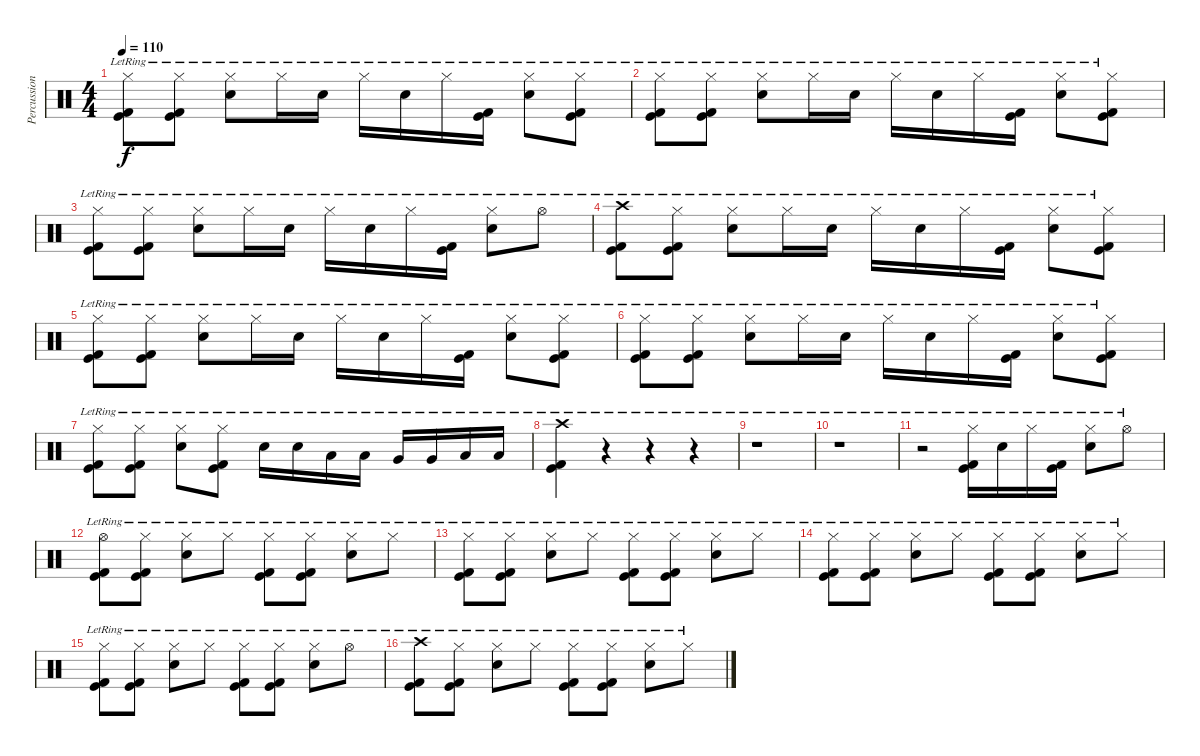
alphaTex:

\track ("Percussion" "Percussion") {instrument percussion}
\staff {score}
\articulation defaults
\ts (4 4)
\tempo 110
\clef neutral
\ks c
("Hi-Hat (closed)"{lr} "Kick (hit) 2"{lr} "Kick (hit)"{lr}).8{dy f} ("Hi-Hat (closed)"{lr} "Kick (hit) 2"{lr} "Kick (hit)"{lr}).8 ("Hi-Hat (closed)"{lr} "Snare (hit) 2"{lr}).8 "Hi-Hat (closed)"{lr}.16 "Snare (hit) 2"{lr}.16 "Hi-Hat (closed)"{lr}.16 "Snare (hit) 2"{lr}.16 "Hi-Hat (closed)"{lr}.16 ("Kick (hit) 2"{lr} "Kick (hit)"{lr}).16 ("Hi-Hat (closed)"{lr} "Snare (hit) 2"{lr}).8 ("Hi-Hat (closed)"{lr} "Kick (hit) 2"{lr} "Kick (hit)"{lr}).8 |
("Hi-Hat (closed)"{lr} "Kick (hit) 2"{lr} "Kick (hit)"{lr}).8 ("Hi-Hat (closed)"{lr} "Kick (hit) 2"{lr} "Kick (hit)"{lr}).8 ("Hi-Hat (closed)"{lr} "Snare (hit) 2"{lr}).8 "Hi-Hat (closed)"{lr}.16 "Snare (hit) 2"{lr}.16 "Hi-Hat (closed)"{lr}.16 "Snare (hit) 2"{lr}.16 "Hi-Hat (closed)"{lr}.16 ("Kick (hit) 2"{lr} "Kick (hit)"{lr}).16 ("Hi-Hat (closed)"{lr} "Snare (hit) 2"{lr}).8 ("Hi-Hat (closed)"{lr} "Kick (hit) 2"{lr} "Kick (hit)"{lr}).8 |
("Hi-Hat (closed)"{lr} "Kick (hit) 2"{lr} "Kick (hit)"{lr}).8 ("Hi-Hat (closed)"{lr} "Kick (hit) 2"{lr} "Kick (hit)"{lr}).8 ("Hi-Hat (closed)"{lr} "Snare (hit) 2"{lr}).8 "Hi-Hat (closed)"{lr}.16 "Snare (hit) 2"{lr}.16 "Hi-Hat (closed)"{lr}.16 "Snare (hit) 2"{lr}.16 "Hi-Hat (closed)"{lr}.16 ("Kick (hit) 2"{lr} "Kick (hit)"{lr}).16 ("Hi-Hat (closed)"{lr} "Snare (hit) 2"{lr}).8 "Hi-Hat (open)"{lr}.8 |
("Crash high (hit)"{lr} "Kick (hit) 2"{lr} "Kick (hit)"{lr}).8 ("Hi-Hat (closed)"{lr} "Kick (hit) 2"{lr} "Kick (hit)"{lr}).8 ("Hi-Hat (closed)"{lr} "Snare (hit) 2"{lr}).8 "Hi-Hat (closed)"{lr}.16 "Snare (hit) 2"{lr}.16 "Hi-Hat (closed)"{lr}.16 "Snare (hit) 2"{lr}.16 "Hi-Hat (closed)"{lr}.16 ("Kick (hit) 2"{lr} "Kick (hit)"{lr}).16 ("Hi-Hat (closed)"{lr} "Snare (hit) 2"{lr}).8 ("Hi-Hat (closed)"{lr} "Kick (hit) 2"{lr} "Kick (hit)"{lr}).8 |
("Hi-Hat (closed)"{lr} "Kick (hit) 2"{lr} "Kick (hit)"{lr}).8 ("Hi-Hat (closed)"{lr} "Kick (hit) 2"{lr} "Kick (hit)"{lr}).8 ("Hi-Hat (closed)"{lr} "Snare (hit) 2"{lr}).8 "Hi-Hat (closed)"{lr}.16 "Snare (hit) 2"{lr}.16 "Hi-Hat (closed)"{lr}.16 "Snare (hit) 2"{lr}.16 "Hi-Hat (closed)"{lr}.16 ("Kick (hit) 2"{lr} "Kick (hit)"{lr}).16 ("Hi-Hat (closed)"{lr} "Snare (hit) 2"{lr}).8 ("Hi-Hat (closed)"{lr} "Kick (hit) 2"{lr} "Kick (hit)"{lr}).8 |
("Hi-Hat (closed)"{lr} "Kick (hit) 2"{lr} "Kick (hit)"{lr}).8 ("Hi-Hat (closed)"{lr} "Kick (hit) 2"{lr} "Kick (hit)"{lr}).8 ("Hi-Hat (closed)"{lr} "Snare (hit) 2"{lr}).8 "Hi-Hat (closed)"{lr}.16 "Snare (hit) 2"{lr}.16 "Hi-Hat (closed)"{lr}.16 "Snare (hit) 2"{lr}.16 "Hi-Hat (closed)"{lr}.16 ("Kick (hit) 2"{lr} "Kick (hit)"{lr}).16 ("Hi-Hat (closed)"{lr} "Snare (hit) 2"{lr}).8 ("Hi-Hat (closed)"{lr} "Kick (hit) 2"{lr} "Kick (hit)"{lr}).8 |
("Hi-Hat (closed)"{lr} "Kick (hit) 2"{lr} "Kick (hit)"{lr}).8 ("Hi-Hat (closed)"{lr} "Kick (hit) 2"{lr} "Kick (hit)"{lr}).8 ("Hi-Hat (closed)"{lr} "Snare (hit) 2"{lr}).8 ("Hi-Hat (closed)"{lr} "Kick (hit) 2"{lr} "Kick (hit)"{lr}).8 "Snare (hit) 2"{lr}.16 "Snare (hit) 2"{lr}.16 "Low Tom (hit)"{lr}.16 "Low Tom (hit)"{lr}.16 "Very Low Tom (hit)"{lr}.16 "Very Low Tom (hit)"{lr}.16 "Low Floor Tom (hit)"{lr}.16 "Low Floor Tom (hit)"{lr}.16 |
("Crash high (hit)"{lr} "Kick (hit) 2"{lr} "Kick (hit)"{lr}).4 r.4 r.4 r.4 |
r.1 |
r.1 |
r.2 ("Hi-Hat (closed)"{lr} "Kick (hit) 2"{lr} "Kick (hit)"{lr}).16 "Electric Snare (hit)"{lr}.16 "Hi-Hat (closed)"{lr}.16 ("Kick (hit) 2"{lr} "Kick (hit)"{lr}).16 ("Hi-Hat (closed)"{lr} "Electric Snare (hit)"{lr}).8 "Hi-Hat (open)"{lr}.8 |
("Hi-Hat (open)"{lr} "Kick (hit) 2"{lr} "Kick (hit)"{lr}).8 ("Hi-Hat (closed)"{lr} "Kick (hit) 2"{lr} "Kick (hit)"{lr}).8 ("Hi-Hat (closed)"{lr} "Snare (hit) 2"{lr}).8 "Hi-Hat (closed)"{lr}.8 ("Hi-Hat (closed)"{lr} "Kick (hit) 2"{lr} "Kick (hit)"{lr}).8 ("Hi-Hat (closed)"{lr} "Kick (hit) 2"{lr} "Kick (hit)"{lr}).8 ("Hi-Hat (closed)"{lr} "Snare (hit) 2"{lr}).8 "Hi-Hat (closed)"{lr}.8 |
("Hi-Hat (closed)"{lr} "Kick (hit) 2"{lr} "Kick (hit)"{lr}).8 ("Hi-Hat (closed)"{lr} "Kick (hit) 2"{lr} "Kick (hit)"{lr}).8 ("Hi-Hat (closed)"{lr} "Snare (hit) 2"{lr}).8 "Hi-Hat (closed)"{lr}.8 ("Hi-Hat (closed)"{lr} "Kick (hit) 2"{lr} "Kick (hit)"{lr}).8 ("Hi-Hat (closed)"{lr} "Kick (hit) 2"{lr} "Kick (hit)"{lr}).8 ("Hi-Hat (closed)"{lr} "Snare (hit) 2"{lr}).8 "Hi-Hat (closed)"{lr}.8 |
("Hi-Hat (closed)"{lr} "Kick (hit) 2"{lr} "Kick (hit)"{lr}).8 ("Hi-Hat (closed)"{lr} "Kick (hit) 2"{lr} "Kick (hit)"{lr}).8 ("Hi-Hat (closed)"{lr} "Snare (hit) 2"{lr}).8 "Hi-Hat (closed)"{lr}.8 ("Hi-Hat (closed)"{lr} "Kick (hit) 2"{lr} "Kick (hit)"{lr}).8 ("Hi-Hat (closed)"{lr} "Kick (hit) 2"{lr} "Kick (hit)"{lr}).8 ("Hi-Hat (closed)"{lr} "Snare (hit) 2"{lr}).8 "Hi-Hat (closed)"{lr}.8 |
("Hi-Hat (closed)"{lr} "Kick (hit) 2"{lr} "Kick (hit)"{lr}).8 ("Hi-Hat (closed)"{lr} "Kick (hit) 2"{lr} "Kick (hit)"{lr}).8 ("Hi-Hat (closed)"{lr} "Snare (hit) 2"{lr}).8 "Hi-Hat (closed)"{lr}.8 ("Hi-Hat (closed)"{lr} "Kick (hit) 2"{lr} "Kick (hit)"{lr}).8 ("Hi-Hat (closed)"{lr} "Kick (hit) 2"{lr} "Kick (hit)"{lr}).8 ("Hi-Hat (closed)"{lr} "Snare (hit) 2"{lr}).8 "Hi-Hat (open)"{lr}.8 |
("Crash high (hit)"{lr} "Kick (hit) 2"{lr} "Kick (hit)"{lr}).8 ("Hi-Hat (closed)"{lr} "Kick (hit) 2"{lr} "Kick (hit)"{lr}).8 ("Hi-Hat (closed)"{lr} "Snare (hit) 2"{lr}).8 "Hi-Hat (closed)"{lr}.8 ("Hi-Hat (closed)"{lr} "Kick (hit) 2"{lr} "Kick (hit)"{lr}).8 ("Hi-Hat (closed)"{lr} "Kick (hit) 2"{lr} "Kick (hit)"{lr}).8 ("Hi-Hat (closed)"{lr} "Snare (hit) 2"{lr}).8 "Hi-Hat (closed)"{lr}.8
